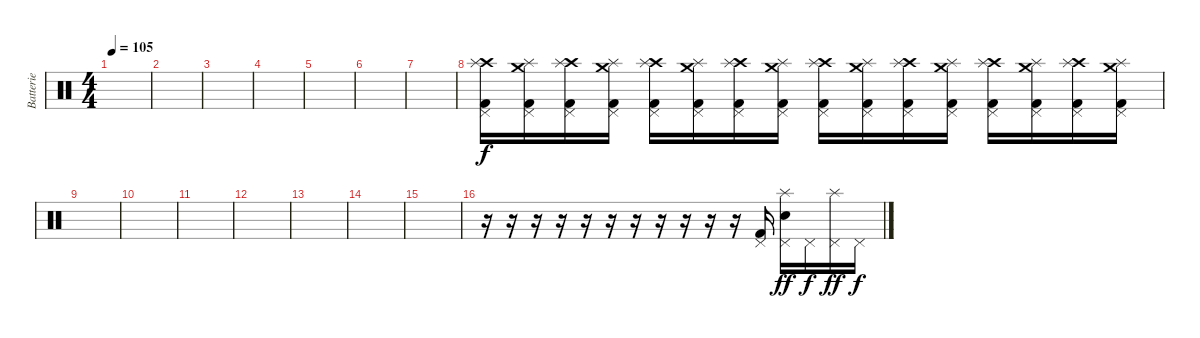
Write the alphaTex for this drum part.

\track ("Batterie" "Batterie") {instrument percussion}
\staff {score}
\articulation defaults
\ts (4 4)
\tempo 105
\clef neutral
\ks c
|
|
|
|
|
|
|
("Pedal Hi-Hat (hit)" "Crash high (hit)" "Splash (hit)" "Kick (hit) 2").16 ("Pedal Hi-Hat (hit)" "Crash medium (hit)" "Splash (hit)" "Kick (hit) 2").16 ("Pedal Hi-Hat (hit)" "Crash high (hit)" "Splash (hit)" "Kick (hit) 2").16 ("Pedal Hi-Hat (hit)" "Crash medium (hit)" "Splash (hit)" "Kick (hit) 2").16 ("Pedal Hi-Hat (hit)" "Crash high (hit)" "Splash (hit)" "Kick (hit) 2").16 ("Pedal Hi-Hat (hit)" "Crash medium (hit)" "Splash (hit)" "Kick (hit) 2").16 ("Pedal Hi-Hat (hit)" "Crash high (hit)" "Splash (hit)" "Kick (hit) 2").16 ("Pedal Hi-Hat (hit)" "Crash medium (hit)" "Splash (hit)" "Kick (hit) 2").16 ("Pedal Hi-Hat (hit)" "Crash high (hit)" "Splash (hit)" "Kick (hit) 2").16 ("Pedal Hi-Hat (hit)" "Crash medium (hit)" "Splash (hit)" "Kick (hit) 2").16 ("Pedal Hi-Hat (hit)" "Crash high (hit)" "Splash (hit)" "Kick (hit) 2").16 ("Pedal Hi-Hat (hit)" "Crash medium (hit)" "Splash (hit)" "Kick (hit) 2").16 ("Pedal Hi-Hat (hit)" "Crash high (hit)" "Splash (hit)" "Kick (hit) 2").16 ("Pedal Hi-Hat (hit)" "Crash medium (hit)" "Splash (hit)" "Kick (hit) 2").16 ("Pedal Hi-Hat (hit)" "Crash high (hit)" "Splash (hit)" "Kick (hit) 2").16 ("Pedal Hi-Hat (hit)" "Crash medium (hit)" "Splash (hit)" "Kick (hit) 2").16 |
|
|
|
|
|
|
|
r.16 r.16 r.16 r.16 r.16 r.16 r.16 r.16 r.16 r.16 r.16 ("Pedal Hi-Hat (hit)" "Kick (hit) 2").16 ("Pedal Hi-Hat (hit)" "Snare (hit) 2" "Splash (hit)").16{dy ff} "Pedal Hi-Hat (hit)".16{dy f} ("Pedal Hi-Hat (hit)" "Splash (hit)").16{dy ff} "Pedal Hi-Hat (hit)".16{dy f}
